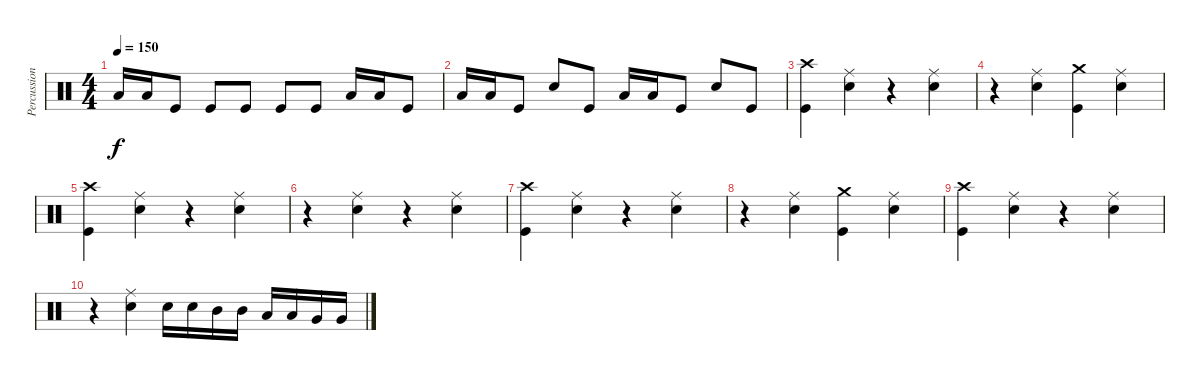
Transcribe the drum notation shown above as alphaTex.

\track ("Percussions" "Percussion") {instrument percussion}
\staff {score}
\articulation defaults
\ts (4 4)
\tempo 150
\clef neutral
\ks c "Low Tom (hit)".16{dy f} "Low Tom (hit)".16 "Kick (hit)".8 "Kick (hit)".8 "Kick (hit)".8 "Kick (hit)".8 "Kick (hit)".8 "Low Tom (hit)".16 "Low Tom (hit)".16 "Kick (hit)".8
|
"Low Tom (hit)".16 "Low Tom (hit)".16 "Kick (hit)".8 "Electric Snare (hit)".8 "Kick (hit)".8 "Low Tom (hit)".16 "Low Tom (hit)".16 "Kick (hit)".8 "Electric Snare (hit)".8 "Kick (hit)".8 |
("Crash high (hit)" "Kick (hit)").4 ("Ride (middle)" "Electric Snare (hit)").4 r.4 ("Ride (middle)" "Electric Snare (hit)").4 |
r.4 ("Ride (middle)" "Electric Snare (hit)").4 ("Crash medium (hit)" "Kick (hit)").4 ("Ride (middle)" "Electric Snare (hit)").4 |
("Crash high (hit)" "Kick (hit)").4 ("Ride (middle)" "Electric Snare (hit)").4 r.4 ("Ride (middle)" "Electric Snare (hit)").4 |
r.4 ("Ride (middle)" "Electric Snare (hit)").4 r.4 ("Ride (middle)" "Electric Snare (hit)").4 |
("Crash high (hit)" "Kick (hit)").4 ("Ride (middle)" "Electric Snare (hit)").4 r.4 ("Ride (middle)" "Electric Snare (hit)").4 |
r.4 ("Ride (middle)" "Electric Snare (hit)").4 ("Crash medium (hit)" "Kick (hit)").4 ("Ride (middle)" "Electric Snare (hit)").4 |
("Crash high (hit)" "Kick (hit)").4 ("Ride (middle)" "Electric Snare (hit)").4 r.4 ("Ride (middle)" "Electric Snare (hit)").4 |
r.4 ("Ride (middle)" "Electric Snare (hit)").4 "Electric Snare (hit)".16 "Electric Snare (hit)".16 "Mid Tom (hit)".16 "Mid Tom (hit)".16 "Low Tom (hit)".16 "Low Tom (hit)".16 "Very Low Tom (hit)".16 "Very Low Tom (hit)".16
